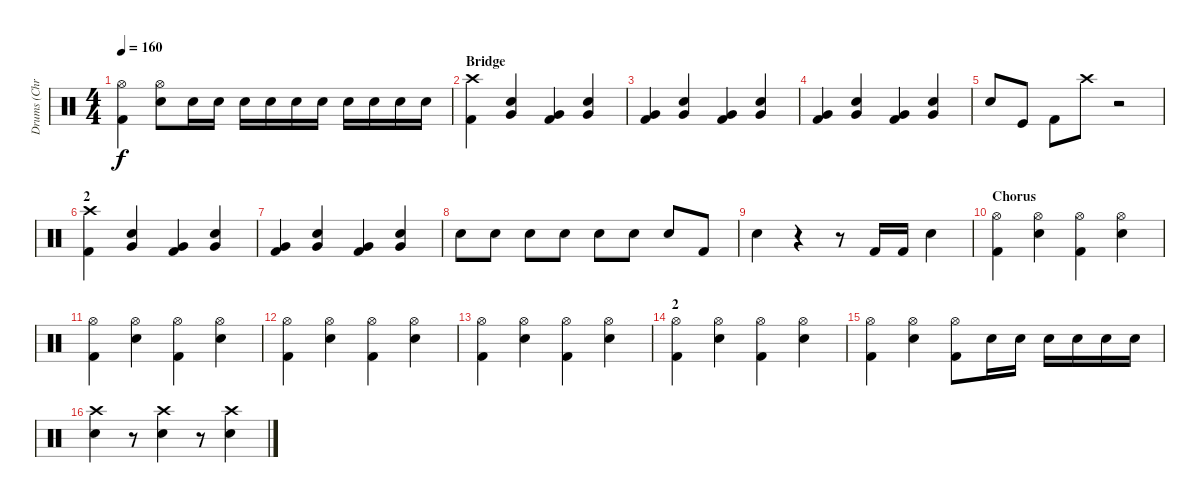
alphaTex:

\track ("Drums (Chris Efthimiadis)" "Drums (Chr") {instrument percussion}
\staff {score}
\articulation defaults
\ts (4 4)
\tempo 160
\clef neutral
\ks c
("Hi-Hat (open)" "Kick (hit) 2").4{dy f} ("Hi-Hat (open)" "Snare (hit) 2").8 "Snare (hit) 2".16 "Snare (hit) 2".16 "Snare (hit) 2".16 "Snare (hit) 2".16 "Snare (hit) 2".16 "Snare (hit) 2".16 "Snare (hit) 2".16 "Snare (hit) 2".16 "Snare (hit) 2".16 "Snare (hit) 2".16 |
\section ("" "Bridge")
("Crash high (hit)" "Kick (hit) 2").4 ("Very Low Tom (hit)" "Snare (hit) 2").4 ("Very Low Tom (hit)" "Kick (hit) 2").4 ("Very Low Tom (hit)" "Snare (hit) 2").4 |
("Very Low Tom (hit)" "Kick (hit) 2").4 ("Very Low Tom (hit)" "Snare (hit) 2").4 ("Very Low Tom (hit)" "Kick (hit) 2").4 ("Very Low Tom (hit)" "Snare (hit) 2").4 |
("Very Low Tom (hit)" "Kick (hit) 2").4 ("Very Low Tom (hit)" "Snare (hit) 2").4 ("Very Low Tom (hit)" "Kick (hit) 2").4 ("Very Low Tom (hit)" "Snare (hit) 2").4 |
"Snare (hit) 2".8 "Kick (hit)".8 "Kick (hit) 2".8 "Crash high (hit)".8 r.2 |
\section ("" "2")
("Crash high (hit)" "Kick (hit) 2").4 ("Very Low Tom (hit)" "Snare (hit) 2").4 ("Very Low Tom (hit)" "Kick (hit) 2").4 ("Very Low Tom (hit)" "Snare (hit) 2").4 |
("Very Low Tom (hit)" "Kick (hit) 2").4 ("Very Low Tom (hit)" "Snare (hit) 2").4 ("Very Low Tom (hit)" "Kick (hit) 2").4 ("Very Low Tom (hit)" "Snare (hit) 2").4 |
"Snare (hit) 2".8 "Snare (hit) 2".8 "Snare (hit) 2".8 "Snare (hit) 2".8 "Snare (hit) 2".8 "Snare (hit) 2".8 "Snare (hit) 2".8 "Kick (hit) 2".8 |
"Snare (hit) 2".4 r.4 r.8 "Kick (hit) 2".16 "Kick (hit) 2".16 "Snare (hit) 2".4 |
\section ("" "Chorus")
("Hi-Hat (open)" "Kick (hit) 2").4 ("Hi-Hat (open)" "Snare (hit) 2").4 ("Hi-Hat (open)" "Kick (hit) 2").4 ("Hi-Hat (open)" "Snare (hit) 2").4 |
("Hi-Hat (open)" "Kick (hit) 2").4 ("Hi-Hat (open)" "Snare (hit) 2").4 ("Hi-Hat (open)" "Kick (hit) 2").4 ("Hi-Hat (open)" "Snare (hit) 2").4 |
("Hi-Hat (open)" "Kick (hit) 2").4 ("Hi-Hat (open)" "Snare (hit) 2").4 ("Hi-Hat (open)" "Kick (hit) 2").4 ("Hi-Hat (open)" "Snare (hit) 2").4 |
("Hi-Hat (open)" "Kick (hit) 2").4 ("Hi-Hat (open)" "Snare (hit) 2").4 ("Hi-Hat (open)" "Kick (hit) 2").4 ("Hi-Hat (open)" "Snare (hit) 2").4 |
\section ("" "2")
("Hi-Hat (open)" "Kick (hit) 2").4 ("Hi-Hat (open)" "Snare (hit) 2").4 ("Hi-Hat (open)" "Kick (hit) 2").4 ("Hi-Hat (open)" "Snare (hit) 2").4 |
("Hi-Hat (open)" "Kick (hit) 2").4 ("Hi-Hat (open)" "Snare (hit) 2").4 ("Hi-Hat (open)" "Kick (hit) 2").8 "Snare (hit) 2".16 "Snare (hit) 2".16 "Snare (hit) 2".16 "Snare (hit) 2".16 "Snare (hit) 2".16 "Snare (hit) 2".16 |
("Crash high (hit)" "Snare (hit) 2").4 r.8 ("Crash high (hit)" "Snare (hit) 2").4 r.8 ("Crash high (hit)" "Snare (hit) 2").4
